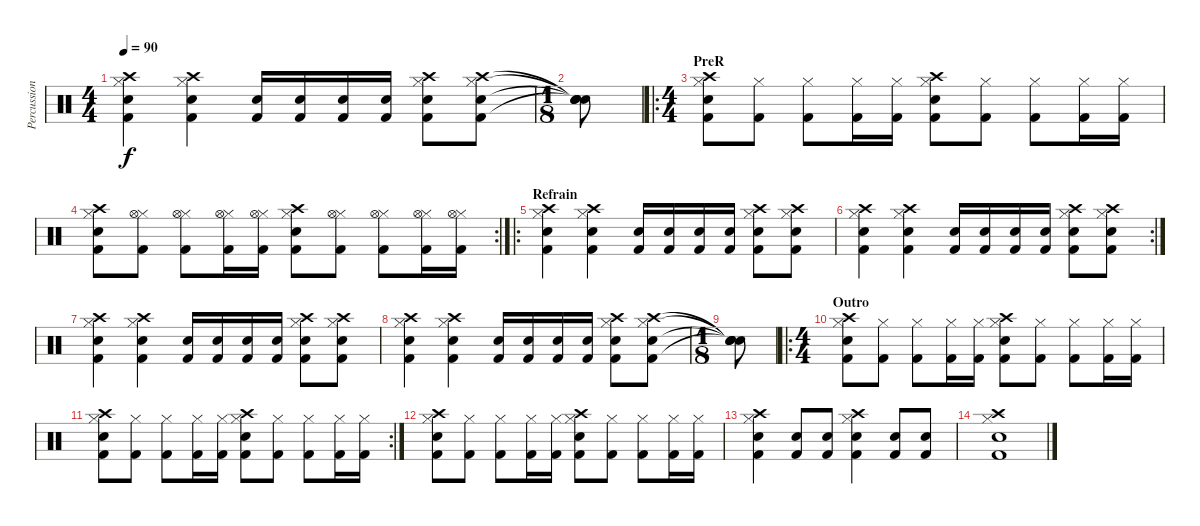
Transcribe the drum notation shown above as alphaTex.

\track ("Percussions" "Percussion") {instrument percussion}
\staff {score}
\articulation defaults
\ts (4 4)
\tempo 90
\clef neutral
\ks c
("Kick (hit) 2" "Hi-Hat (closed)" "Snare (hit) 2" "Crash high (hit)").4{dy f} ("Kick (hit) 2" "Hi-Hat (closed)" "Snare (hit) 2" "Crash high (hit)").4 ("Kick (hit) 2" "Snare (hit) 2").16 ("Kick (hit) 2" "Snare (hit) 2").16 ("Kick (hit) 2" "Snare (hit) 2").16 ("Kick (hit) 2" "Snare (hit) 2").16 ("Kick (hit) 2" "Hi-Hat (closed)" "Snare (hit) 2" "Crash high (hit)").8 ("Kick (hit) 2" "Hi-Hat (closed)" "Snare (hit) 2" "Crash high (hit)").8 |
\ts (1 8)
("Snare (hit)"{t} "Snare (hit)"{t} "Snare (hit)"{t} "Snare (hit)"{t}).8 |
\ro
\ts (4 4)
\section ("" "PreR")
("Kick (hit) 2" "Hi-Hat (closed)" "Snare (hit) 2" "Crash high (hit)").8 ("Kick (hit) 2" "Hi-Hat (closed)").8 ("Kick (hit) 2" "Hi-Hat (closed)").8 ("Kick (hit) 2" "Hi-Hat (closed)").16 ("Kick (hit) 2" "Hi-Hat (closed)").16 ("Kick (hit) 2" "Hi-Hat (closed)" "Snare (hit) 2" "Crash high (hit)").8 ("Kick (hit) 2" "Hi-Hat (closed)").8 ("Kick (hit) 2" "Hi-Hat (closed)").8 ("Hi-Hat (closed)" "Kick (hit) 2").16 ("Hi-Hat (closed)" "Kick (hit) 2").16 |
\rc 2
("Kick (hit) 2" "Hi-Hat (closed)" "Snare (hit) 2" "Crash high (hit)").8 ("Kick (hit) 2" "Hi-Hat (closed)" "Hi-Hat (open)").8 ("Kick (hit) 2" "Hi-Hat (closed)" "Hi-Hat (open)").8 ("Kick (hit) 2" "Hi-Hat (closed)" "Hi-Hat (open)").16 ("Kick (hit) 2" "Hi-Hat (closed)" "Hi-Hat (open)").16 ("Kick (hit) 2" "Hi-Hat (closed)" "Snare (hit) 2" "Crash high (hit)").8 ("Kick (hit) 2" "Hi-Hat (closed)" "Hi-Hat (open)").8 ("Kick (hit) 2" "Hi-Hat (closed)" "Hi-Hat (open)").8 ("Hi-Hat (closed)" "Kick (hit) 2" "Hi-Hat (open)").16 ("Hi-Hat (closed)" "Kick (hit) 2" "Hi-Hat (open)").16 |
\ro
\section ("" "Refrain")
("Kick (hit) 2" "Hi-Hat (closed)" "Snare (hit) 2" "Crash high (hit)").4 ("Kick (hit) 2" "Hi-Hat (closed)" "Snare (hit) 2" "Crash high (hit)").4 ("Kick (hit) 2" "Snare (hit) 2").16 ("Kick (hit) 2" "Snare (hit) 2").16 ("Kick (hit) 2" "Snare (hit) 2").16 ("Kick (hit) 2" "Snare (hit) 2").16 ("Kick (hit) 2" "Hi-Hat (closed)" "Snare (hit) 2" "Crash high (hit)").8 ("Kick (hit) 2" "Hi-Hat (closed)" "Snare (hit) 2" "Crash high (hit)").8 |
\rc 2
("Kick (hit) 2" "Hi-Hat (closed)" "Snare (hit) 2" "Crash high (hit)").4 ("Kick (hit) 2" "Hi-Hat (closed)" "Snare (hit) 2" "Crash high (hit)").4 ("Kick (hit) 2" "Snare (hit) 2").16 ("Kick (hit) 2" "Snare (hit) 2").16 ("Kick (hit) 2" "Snare (hit) 2").16 ("Kick (hit) 2" "Snare (hit) 2").16 ("Kick (hit) 2" "Hi-Hat (closed)" "Snare (hit) 2" "Crash high (hit)").8 ("Kick (hit) 2" "Hi-Hat (closed)" "Snare (hit) 2" "Crash high (hit)").8 |
("Kick (hit) 2" "Hi-Hat (closed)" "Snare (hit) 2" "Crash high (hit)").4 ("Kick (hit) 2" "Hi-Hat (closed)" "Snare (hit) 2" "Crash high (hit)").4 ("Kick (hit) 2" "Snare (hit) 2").16 ("Kick (hit) 2" "Snare (hit) 2").16 ("Kick (hit) 2" "Snare (hit) 2").16 ("Kick (hit) 2" "Snare (hit) 2").16 ("Kick (hit) 2" "Hi-Hat (closed)" "Snare (hit) 2" "Crash high (hit)").8 ("Kick (hit) 2" "Hi-Hat (closed)" "Snare (hit) 2" "Crash high (hit)").8 |
("Kick (hit) 2" "Hi-Hat (closed)" "Snare (hit) 2" "Crash high (hit)").4 ("Kick (hit) 2" "Hi-Hat (closed)" "Snare (hit) 2" "Crash high (hit)").4 ("Kick (hit) 2" "Snare (hit) 2").16 ("Kick (hit) 2" "Snare (hit) 2").16 ("Kick (hit) 2" "Snare (hit) 2").16 ("Kick (hit) 2" "Snare (hit) 2").16 ("Kick (hit) 2" "Hi-Hat (closed)" "Snare (hit) 2" "Crash high (hit)").8 ("Kick (hit) 2" "Hi-Hat (closed)" "Snare (hit) 2" "Crash high (hit)").8 |
\ts (1 8)
("Snare (hit)"{t} "Snare (hit)"{t} "Snare (hit)"{t} "Snare (hit)"{t}).8 |
\ro
\ts (4 4)
\section ("" "Outro")
("Kick (hit) 2" "Hi-Hat (closed)" "Snare (hit) 2" "Crash high (hit)").8 ("Kick (hit) 2" "Hi-Hat (closed)").8 ("Kick (hit) 2" "Hi-Hat (closed)").8 ("Kick (hit) 2" "Hi-Hat (closed)").16 ("Kick (hit) 2" "Hi-Hat (closed)").16 ("Kick (hit) 2" "Hi-Hat (closed)" "Snare (hit) 2" "Crash high (hit)").8 ("Kick (hit) 2" "Hi-Hat (closed)").8 ("Kick (hit) 2" "Hi-Hat (closed)").8 ("Hi-Hat (closed)" "Kick (hit) 2").16 ("Hi-Hat (closed)" "Kick (hit) 2").16 |
\rc 2
("Kick (hit) 2" "Hi-Hat (closed)" "Snare (hit) 2" "Crash high (hit)").8 ("Kick (hit) 2" "Hi-Hat (closed)").8 ("Kick (hit) 2" "Hi-Hat (closed)").8 ("Kick (hit) 2" "Hi-Hat (closed)").16 ("Kick (hit) 2" "Hi-Hat (closed)").16 ("Kick (hit) 2" "Hi-Hat (closed)" "Snare (hit) 2" "Crash high (hit)").8 ("Kick (hit) 2" "Hi-Hat (closed)").8 ("Kick (hit) 2" "Hi-Hat (closed)").8 ("Hi-Hat (closed)" "Kick (hit) 2").16 ("Hi-Hat (closed)" "Kick (hit) 2").16 |
("Kick (hit) 2" "Hi-Hat (closed)" "Snare (hit) 2" "Crash high (hit)").8 ("Kick (hit) 2" "Hi-Hat (closed)").8 ("Kick (hit) 2" "Hi-Hat (closed)").8 ("Kick (hit) 2" "Hi-Hat (closed)").16 ("Kick (hit) 2" "Hi-Hat (closed)").16 ("Kick (hit) 2" "Hi-Hat (closed)" "Snare (hit) 2" "Crash high (hit)").8 ("Kick (hit) 2" "Hi-Hat (closed)").8 ("Kick (hit) 2" "Hi-Hat (closed)").8 ("Hi-Hat (closed)" "Kick (hit) 2").16 ("Hi-Hat (closed)" "Kick (hit) 2").16 |
("Kick (hit) 2" "Snare (hit) 2" "Hi-Hat (closed)" "Crash high (hit)").4 ("Kick (hit) 2" "Snare (hit) 2").8 ("Kick (hit) 2" "Snare (hit) 2").8 ("Kick (hit) 2" "Snare (hit) 2" "Hi-Hat (closed)" "Crash high (hit)").4 ("Kick (hit) 2" "Snare (hit) 2").8 ("Kick (hit) 2" "Snare (hit) 2").8 |
("Kick (hit) 2" "Snare (hit) 2" "Hi-Hat (closed)" "Crash high (hit)").1
